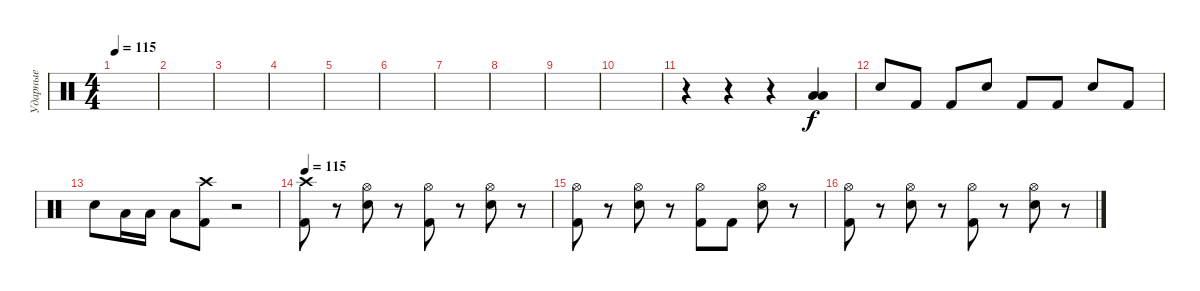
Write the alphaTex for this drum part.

\track ("Ударные" "Ударные") {instrument percussion}
\staff {score}
\articulation defaults
\ts (4 4)
\tempo 115
\clef neutral
\ks c
|
|
|
|
|
|
|
|
|
|
r.4 r.4 r.4 ("Low Tom (hit)" "Low Floor Tom (hit)").4 |
"Electric Snare (hit)".8 "Kick (hit) 2".8 "Kick (hit) 2".8 "Electric Snare (hit)".8 "Kick (hit) 2".8 "Kick (hit) 2".8 "Electric Snare (hit)".8 "Kick (hit) 2".8 |
"Electric Snare (hit)".8 "Low Tom (hit)".16 "Low Tom (hit)".16 "Low Tom (hit)".8 ("Kick (hit) 2" "Crash high (hit)").8 r.2 |
\tempo 115
("Kick (hit) 2" "Crash high (hit)").8 r.8 ("Hi-Hat (open)" "Electric Snare (hit)").8 r.8 ("Kick (hit) 2" "Hi-Hat (open)").8 r.8 ("Hi-Hat (open)" "Electric Snare (hit)").8 r.8 |
("Kick (hit) 2" "Hi-Hat (open)").8 r.8 ("Hi-Hat (open)" "Electric Snare (hit)").8 r.8 ("Kick (hit) 2" "Hi-Hat (open)").8 "Kick (hit) 2".8 ("Hi-Hat (open)" "Electric Snare (hit)").8 r.8 |
("Kick (hit) 2" "Hi-Hat (open)").8 r.8 ("Hi-Hat (open)" "Electric Snare (hit)").8 r.8 ("Kick (hit) 2" "Hi-Hat (open)").8 r.8 ("Hi-Hat (open)" "Electric Snare (hit)").8 r.8
